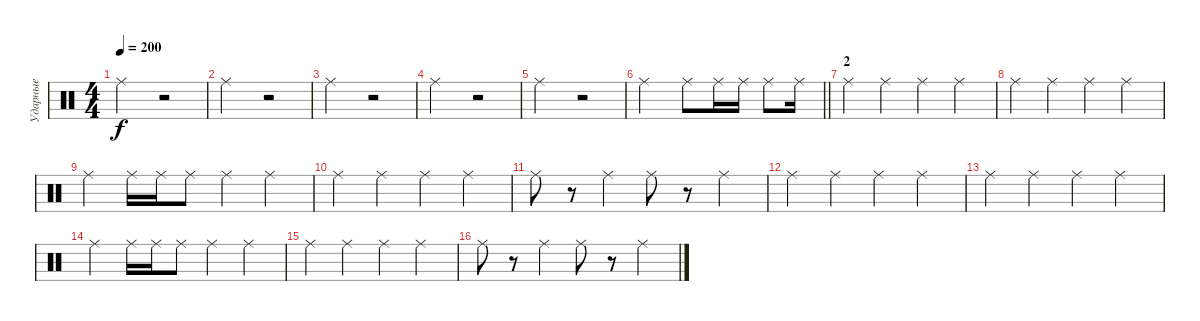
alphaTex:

\track ("Ударные" "Ударные") {instrument percussion}
\staff {score}
\articulation defaults
\ts (4 4)
\tempo 200
\clef neutral
\ks c "Ride (middle)".2{dy f}
r.2 |
"Ride (middle)".2 r.2 |
"Ride (middle)".2 r.2 |
"Ride (middle)".2 r.2 |
"Ride (middle)".2 r.2 |
\barLineRight lightlight "Ride (middle)".2 "Ride (middle)".8 "Ride (middle)".16 "Ride (middle)".16 "Ride (middle)".8 "Ride (middle)".16
|
\section ("" "2")
"Ride (middle)".4{volume 11} "Ride (middle)".4 "Ride (middle)".4 "Ride (middle)".4 |
"Ride (middle)".4 "Ride (middle)".4 "Ride (middle)".4 "Ride (middle)".4 |
"Ride (middle)".4 "Ride (middle)".16 "Ride (middle)".16 "Ride (middle)".8 "Ride (middle)".4 "Ride (middle)".4 |
"Ride (middle)".4 "Ride (middle)".4 "Ride (middle)".4 "Ride (middle)".4 |
"Ride (middle)".8 r.8 "Ride (middle)".4 "Ride (middle)".8 r.8 "Ride (middle)".4 |
"Ride (middle)".4 "Ride (middle)".4 "Ride (middle)".4 "Ride (middle)".4 |
"Ride (middle)".4 "Ride (middle)".4 "Ride (middle)".4 "Ride (middle)".4 |
"Ride (middle)".4 "Ride (middle)".16 "Ride (middle)".16 "Ride (middle)".8 "Ride (middle)".4 "Ride (middle)".4 |
"Ride (middle)".4 "Ride (middle)".4 "Ride (middle)".4 "Ride (middle)".4 |
"Ride (middle)".8 r.8 "Ride (middle)".4 "Ride (middle)".8 r.8 "Ride (middle)".4
